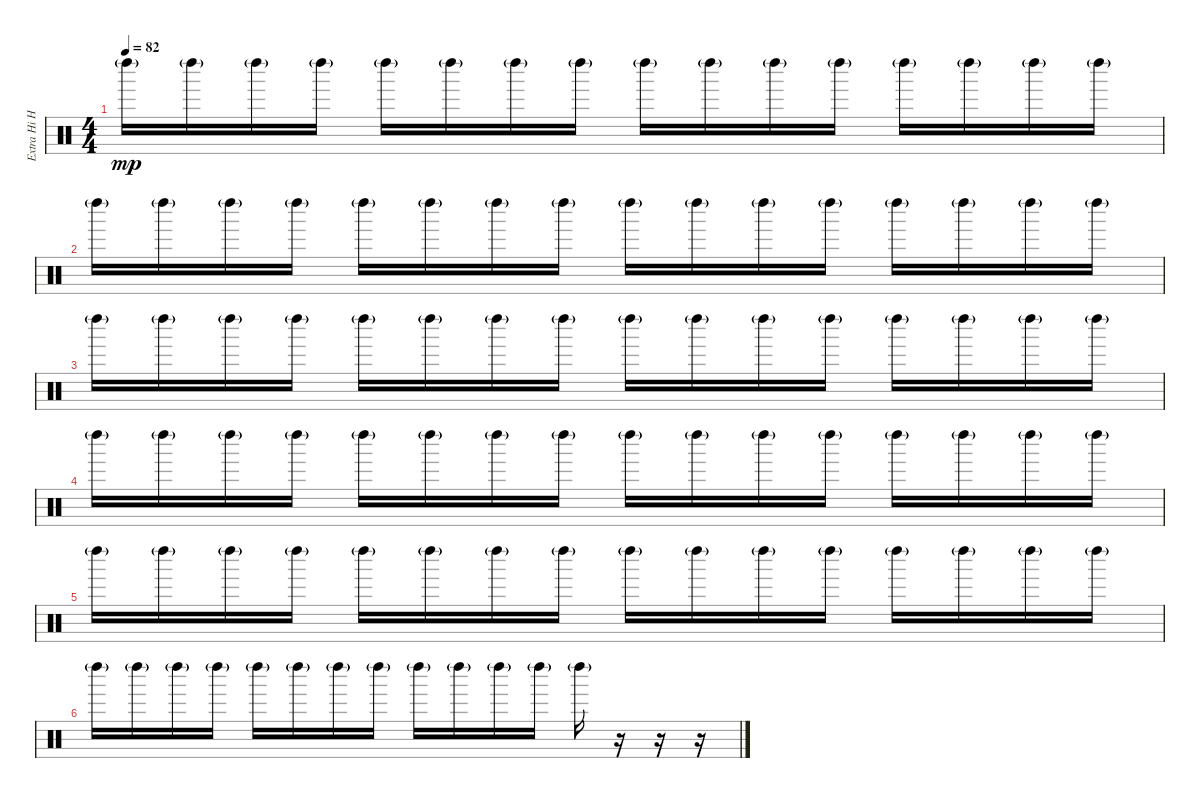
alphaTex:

\track ("Extra Hi Hat" "Extra Hi H") {instrument percussion}
\staff {score}
\articulation defaults
\ts (4 4)
\tempo 82
\clef neutral
\ks c "Left Maraca (hit)"{g}.16{dy mp} "Left Maraca (hit)"{g}.16 "Left Maraca (hit)"{g}.16 "Left Maraca (hit)"{g}.16 "Left Maraca (hit)"{g}.16 "Left Maraca (hit)"{g}.16 "Left Maraca (hit)"{g}.16 "Left Maraca (hit)"{g}.16 "Left Maraca (hit)"{g}.16 "Left Maraca (hit)"{g}.16 "Left Maraca (hit)"{g}.16 "Left Maraca (hit)"{g}.16 "Left Maraca (hit)"{g}.16 "Left Maraca (hit)"{g}.16 "Left Maraca (hit)"{g}.16 "Left Maraca (hit)"{g}.16
|
"Left Maraca (hit)"{g}.16 "Left Maraca (hit)"{g}.16 "Left Maraca (hit)"{g}.16 "Left Maraca (hit)"{g}.16 "Left Maraca (hit)"{g}.16 "Left Maraca (hit)"{g}.16 "Left Maraca (hit)"{g}.16 "Left Maraca (hit)"{g}.16 "Left Maraca (hit)"{g}.16 "Left Maraca (hit)"{g}.16 "Left Maraca (hit)"{g}.16 "Left Maraca (hit)"{g}.16 "Left Maraca (hit)"{g}.16 "Left Maraca (hit)"{g}.16 "Left Maraca (hit)"{g}.16 "Left Maraca (hit)"{g}.16 |
"Left Maraca (hit)"{g}.16 "Left Maraca (hit)"{g}.16 "Left Maraca (hit)"{g}.16 "Left Maraca (hit)"{g}.16 "Left Maraca (hit)"{g}.16 "Left Maraca (hit)"{g}.16 "Left Maraca (hit)"{g}.16 "Left Maraca (hit)"{g}.16 "Left Maraca (hit)"{g}.16 "Left Maraca (hit)"{g}.16 "Left Maraca (hit)"{g}.16 "Left Maraca (hit)"{g}.16 "Left Maraca (hit)"{g}.16 "Left Maraca (hit)"{g}.16 "Left Maraca (hit)"{g}.16 "Left Maraca (hit)"{g}.16 |
"Left Maraca (hit)"{g}.16 "Left Maraca (hit)"{g}.16 "Left Maraca (hit)"{g}.16 "Left Maraca (hit)"{g}.16 "Left Maraca (hit)"{g}.16 "Left Maraca (hit)"{g}.16 "Left Maraca (hit)"{g}.16 "Left Maraca (hit)"{g}.16 "Left Maraca (hit)"{g}.16 "Left Maraca (hit)"{g}.16 "Left Maraca (hit)"{g}.16 "Left Maraca (hit)"{g}.16 "Left Maraca (hit)"{g}.16 "Left Maraca (hit)"{g}.16 "Left Maraca (hit)"{g}.16 "Left Maraca (hit)"{g}.16 |
"Left Maraca (hit)"{g}.16 "Left Maraca (hit)"{g}.16 "Left Maraca (hit)"{g}.16 "Left Maraca (hit)"{g}.16 "Left Maraca (hit)"{g}.16 "Left Maraca (hit)"{g}.16 "Left Maraca (hit)"{g}.16 "Left Maraca (hit)"{g}.16 "Left Maraca (hit)"{g}.16 "Left Maraca (hit)"{g}.16 "Left Maraca (hit)"{g}.16 "Left Maraca (hit)"{g}.16 "Left Maraca (hit)"{g}.16 "Left Maraca (hit)"{g}.16 "Left Maraca (hit)"{g}.16 "Left Maraca (hit)"{g}.16 |
"Left Maraca (hit)"{g}.16 "Left Maraca (hit)"{g}.16 "Left Maraca (hit)"{g}.16 "Left Maraca (hit)"{g}.16 "Left Maraca (hit)"{g}.16 "Left Maraca (hit)"{g}.16 "Left Maraca (hit)"{g}.16 "Left Maraca (hit)"{g}.16 "Left Maraca (hit)"{g}.16 "Left Maraca (hit)"{g}.16 "Left Maraca (hit)"{g}.16 "Left Maraca (hit)"{g}.16 "Left Maraca (hit)"{g}.16 r.16 r.16 r.16
